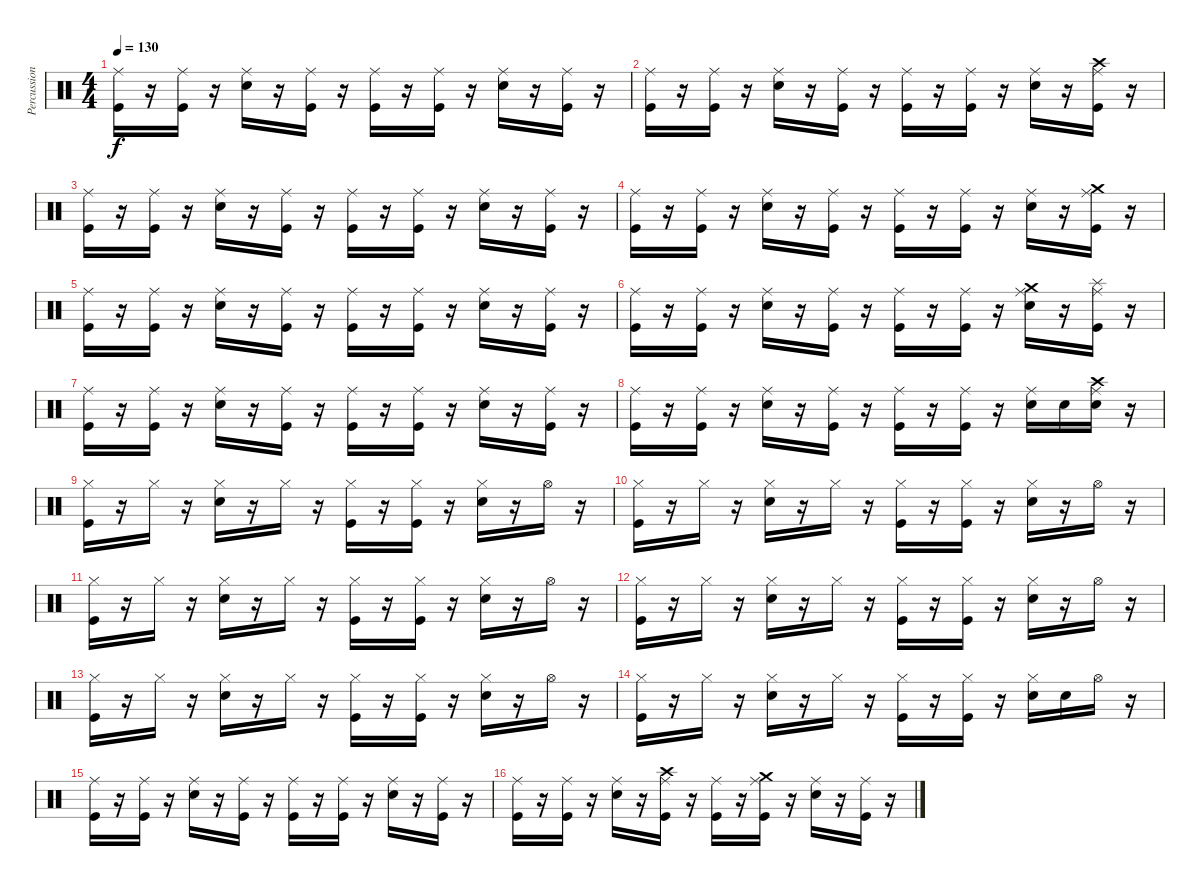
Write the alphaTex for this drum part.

\track ("Percussion" "Percussion") {instrument percussion}
\staff {score}
\articulation defaults
\ts (4 4)
\tempo 130
\clef neutral
\ks c
("Kick (hit)" "Ride (middle)").16{dy f} r.16 ("Kick (hit)" "Ride (middle)").16 r.16 ("Snare (hit) 2" "Ride (middle)").16 r.16 ("Kick (hit)" "Ride (middle)").16 r.16 ("Kick (hit)" "Ride (middle)").16 r.16 ("Kick (hit)" "Ride (middle)").16 r.16 ("Snare (hit) 2" "Ride (middle)").16 r.16 ("Kick (hit)" "Ride (middle)").16 r.16 |
("Kick (hit)" "Ride (middle)").16 r.16 ("Kick (hit)" "Ride (middle)").16 r.16 ("Snare (hit) 2" "Ride (middle)").16 r.16 ("Kick (hit)" "Ride (middle)").16 r.16 ("Kick (hit)" "Ride (middle)").16 r.16 ("Kick (hit)" "Ride (middle)").16 r.16 ("Snare (hit) 2" "Ride (middle)").16 r.16 ("Kick (hit)" "Ride (middle)" "Crash high (hit)").16 r.16 |
("Kick (hit)" "Ride (middle)").16 r.16 ("Kick (hit)" "Ride (middle)").16 r.16 ("Snare (hit) 2" "Ride (middle)").16 r.16 ("Kick (hit)" "Ride (middle)").16 r.16 ("Kick (hit)" "Ride (middle)").16 r.16 ("Kick (hit)" "Ride (middle)").16 r.16 ("Snare (hit) 2" "Ride (middle)").16 r.16 ("Kick (hit)" "Ride (middle)").16 r.16 |
("Kick (hit)" "Ride (middle)").16 r.16 ("Kick (hit)" "Ride (middle)").16 r.16 ("Snare (hit) 2" "Ride (middle)").16 r.16 ("Kick (hit)" "Ride (middle)").16 r.16 ("Kick (hit)" "Ride (middle)").16 r.16 ("Kick (hit)" "Ride (middle)").16 r.16 ("Snare (hit) 2" "Ride (middle)").16 r.16 ("Kick (hit)" "Ride (middle)" "Crash medium (hit)").16 r.16 |
("Kick (hit)" "Ride (middle)").16 r.16 ("Kick (hit)" "Ride (middle)").16 r.16 ("Snare (hit) 2" "Ride (middle)").16 r.16 ("Kick (hit)" "Ride (middle)").16 r.16 ("Kick (hit)" "Ride (middle)").16 r.16 ("Kick (hit)" "Ride (middle)").16 r.16 ("Snare (hit) 2" "Ride (middle)").16 r.16 ("Kick (hit)" "Ride (middle)").16 r.16 |
("Kick (hit)" "Ride (middle)").16 r.16 ("Kick (hit)" "Ride (middle)").16 r.16 ("Snare (hit) 2" "Ride (middle)").16 r.16 ("Kick (hit)" "Ride (middle)").16 r.16 ("Kick (hit)" "Ride (middle)").16 r.16 ("Kick (hit)" "Ride (middle)").16 r.16 ("Snare (hit) 2" "Ride (middle)" "Crash medium (hit)").16 r.16 ("Kick (hit)" "Ride (middle)" "Splash (hit)").16 r.16 |
("Kick (hit)" "Ride (middle)").16 r.16 ("Kick (hit)" "Ride (middle)").16 r.16 ("Snare (hit) 2" "Ride (middle)").16 r.16 ("Kick (hit)" "Ride (middle)").16 r.16 ("Kick (hit)" "Ride (middle)").16 r.16 ("Kick (hit)" "Ride (middle)").16 r.16 ("Snare (hit) 2" "Ride (middle)").16 r.16 ("Kick (hit)" "Ride (middle)").16 r.16 |
("Kick (hit)" "Ride (middle)").16 r.16 ("Kick (hit)" "Ride (middle)").16 r.16 ("Snare (hit) 2" "Ride (middle)").16 r.16 ("Kick (hit)" "Ride (middle)").16 r.16 ("Kick (hit)" "Ride (middle)").16 r.16 ("Kick (hit)" "Ride (middle)").16 r.16 ("Snare (hit) 2" "Ride (middle)").16 "Snare (hit) 2".16 ("Snare (hit) 2" "Ride (middle)" "Crash high (hit)").16 r.16 |
("Kick (hit)" "Hi-Hat (closed)").16 r.16 "Hi-Hat (closed)".16 r.16 ("Snare (hit) 2" "Hi-Hat (closed)").16 r.16 "Hi-Hat (closed)".16 r.16 ("Kick (hit)" "Hi-Hat (closed)").16 r.16 ("Kick (hit)" "Hi-Hat (closed)").16 r.16 ("Snare (hit) 2" "Hi-Hat (closed)").16 r.16 "Hi-Hat (open)".16 r.16 |
("Kick (hit)" "Hi-Hat (closed)").16 r.16 "Hi-Hat (closed)".16 r.16 ("Snare (hit) 2" "Hi-Hat (closed)").16 r.16 "Hi-Hat (closed)".16 r.16 ("Kick (hit)" "Hi-Hat (closed)").16 r.16 ("Kick (hit)" "Hi-Hat (closed)").16 r.16 ("Snare (hit) 2" "Hi-Hat (closed)").16 r.16 "Hi-Hat (open)".16 r.16 |
("Kick (hit)" "Hi-Hat (closed)").16 r.16 "Hi-Hat (closed)".16 r.16 ("Snare (hit) 2" "Hi-Hat (closed)").16 r.16 "Hi-Hat (closed)".16 r.16 ("Kick (hit)" "Hi-Hat (closed)").16 r.16 ("Kick (hit)" "Hi-Hat (closed)").16 r.16 ("Snare (hit) 2" "Hi-Hat (closed)").16 r.16 "Hi-Hat (open)".16 r.16 |
("Kick (hit)" "Hi-Hat (closed)").16 r.16 "Hi-Hat (closed)".16 r.16 ("Snare (hit) 2" "Hi-Hat (closed)").16 r.16 "Hi-Hat (closed)".16 r.16 ("Kick (hit)" "Hi-Hat (closed)").16 r.16 ("Kick (hit)" "Hi-Hat (closed)").16 r.16 ("Snare (hit) 2" "Hi-Hat (closed)").16 r.16 "Hi-Hat (open)".16 r.16 |
("Kick (hit)" "Hi-Hat (closed)").16 r.16 "Hi-Hat (closed)".16 r.16 ("Snare (hit) 2" "Hi-Hat (closed)").16 r.16 "Hi-Hat (closed)".16 r.16 ("Kick (hit)" "Hi-Hat (closed)").16 r.16 ("Kick (hit)" "Hi-Hat (closed)").16 r.16 ("Snare (hit) 2" "Hi-Hat (closed)").16 r.16 "Hi-Hat (open)".16 r.16 |
("Kick (hit)" "Hi-Hat (closed)").16 r.16 "Hi-Hat (closed)".16 r.16 ("Snare (hit) 2" "Hi-Hat (closed)").16 r.16 "Hi-Hat (closed)".16 r.16 ("Kick (hit)" "Hi-Hat (closed)").16 r.16 ("Kick (hit)" "Hi-Hat (closed)").16 r.16 ("Snare (hit) 2" "Hi-Hat (closed)").16 "Snare (hit) 2".16 "Hi-Hat (open)".16 r.16 |
("Kick (hit)" "Ride (middle)").16 r.16 ("Kick (hit)" "Ride (middle)").16 r.16 ("Snare (hit) 2" "Ride (middle)").16 r.16 ("Kick (hit)" "Ride (middle)").16 r.16 ("Kick (hit)" "Ride (middle)").16 r.16 ("Kick (hit)" "Ride (middle)").16 r.16 ("Snare (hit) 2" "Ride (middle)").16 r.16 ("Kick (hit)" "Ride (middle)").16 r.16 |
("Kick (hit)" "Ride (middle)").16 r.16 ("Kick (hit)" "Ride (middle)").16 r.16 ("Snare (hit) 2" "Ride (middle)").16 r.16 ("Kick (hit)" "Ride (middle)" "Crash high (hit)").16 r.16 ("Kick (hit)" "Ride (middle)").16 r.16 ("Kick (hit)" "Ride (middle)" "Crash medium (hit)").16 r.16 ("Snare (hit) 2" "Ride (middle)").16 r.16 ("Kick (hit)" "Ride (middle)").16 r.16
